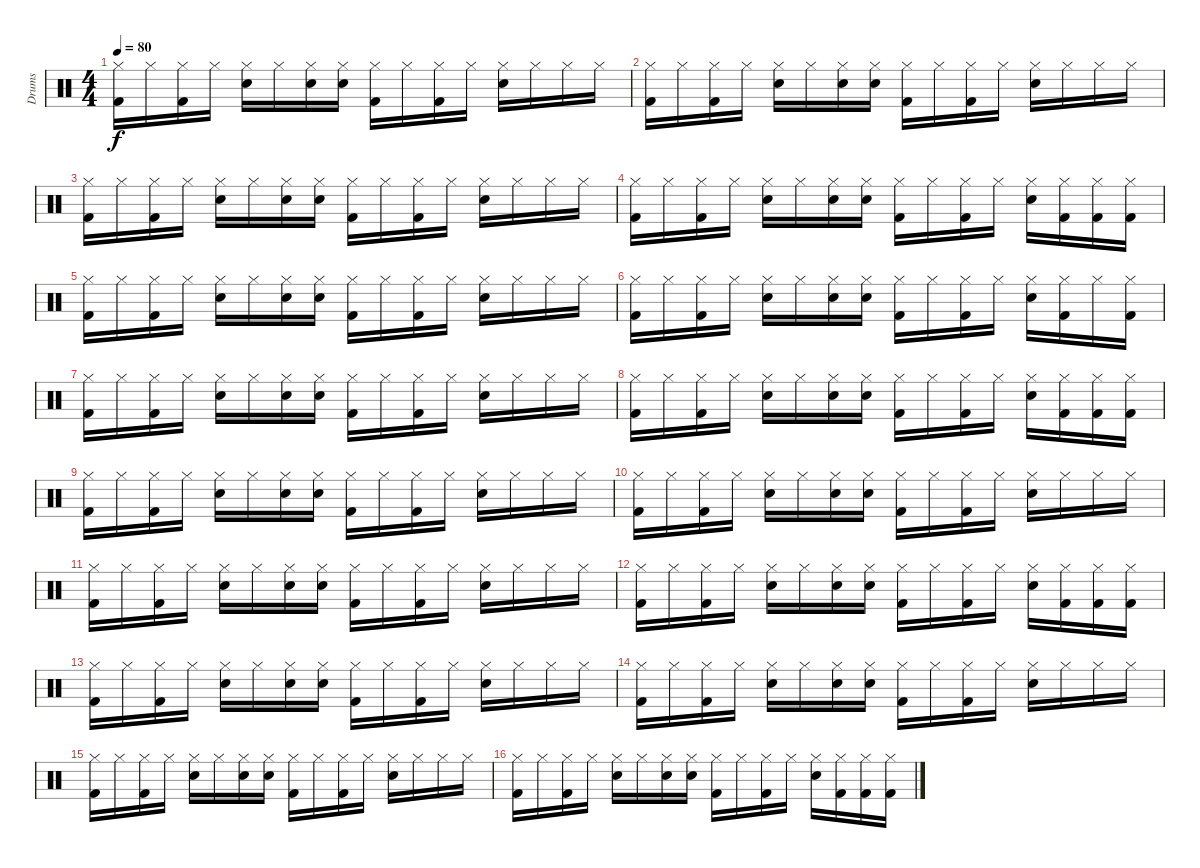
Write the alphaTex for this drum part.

\track ("Drums" "Drums") {instrument percussion}
\staff {score}
\articulation defaults
\ts (4 4)
\tempo 80
\clef neutral
\ks c
("Hi-Hat (closed)" "Kick (hit) 2").16{dy f} "Hi-Hat (closed)".16 ("Hi-Hat (closed)" "Kick (hit) 2").16 "Hi-Hat (closed)".16 ("Hi-Hat (closed)" "Electric Snare (hit)").16 "Hi-Hat (closed)".16 ("Hi-Hat (closed)" "Electric Snare (hit)").16 ("Hi-Hat (closed)" "Electric Snare (hit)").16 ("Hi-Hat (closed)" "Kick (hit) 2").16 "Hi-Hat (closed)".16 ("Hi-Hat (closed)" "Kick (hit) 2").16 "Hi-Hat (closed)".16 ("Hi-Hat (closed)" "Electric Snare (hit)").16 "Hi-Hat (closed)".16 "Hi-Hat (closed)".16 "Hi-Hat (closed)".16 |
("Hi-Hat (closed)" "Kick (hit) 2").16 "Hi-Hat (closed)".16 ("Hi-Hat (closed)" "Kick (hit) 2").16 "Hi-Hat (closed)".16 ("Hi-Hat (closed)" "Electric Snare (hit)").16 "Hi-Hat (closed)".16 ("Hi-Hat (closed)" "Electric Snare (hit)").16 ("Hi-Hat (closed)" "Electric Snare (hit)").16 ("Hi-Hat (closed)" "Kick (hit) 2").16 "Hi-Hat (closed)".16 ("Hi-Hat (closed)" "Kick (hit) 2").16 "Hi-Hat (closed)".16 ("Hi-Hat (closed)" "Electric Snare (hit)").16 "Hi-Hat (closed)".16 "Hi-Hat (closed)".16 "Hi-Hat (closed)".16 |
("Hi-Hat (closed)" "Kick (hit) 2").16 "Hi-Hat (closed)".16 ("Hi-Hat (closed)" "Kick (hit) 2").16 "Hi-Hat (closed)".16 ("Hi-Hat (closed)" "Electric Snare (hit)").16 "Hi-Hat (closed)".16 ("Hi-Hat (closed)" "Electric Snare (hit)").16 ("Hi-Hat (closed)" "Electric Snare (hit)").16 ("Hi-Hat (closed)" "Kick (hit) 2").16 "Hi-Hat (closed)".16 ("Hi-Hat (closed)" "Kick (hit) 2").16 "Hi-Hat (closed)".16 ("Hi-Hat (closed)" "Electric Snare (hit)").16 "Hi-Hat (closed)".16 "Hi-Hat (closed)".16 "Hi-Hat (closed)".16 |
("Hi-Hat (closed)" "Kick (hit) 2").16 "Hi-Hat (closed)".16 ("Hi-Hat (closed)" "Kick (hit) 2").16 "Hi-Hat (closed)".16 ("Hi-Hat (closed)" "Electric Snare (hit)").16 "Hi-Hat (closed)".16 ("Hi-Hat (closed)" "Electric Snare (hit)").16 ("Hi-Hat (closed)" "Electric Snare (hit)").16 ("Hi-Hat (closed)" "Kick (hit) 2").16 "Hi-Hat (closed)".16 ("Hi-Hat (closed)" "Kick (hit) 2").16 "Hi-Hat (closed)".16 ("Hi-Hat (closed)" "Electric Snare (hit)").16 ("Hi-Hat (closed)" "Kick (hit) 2").16 ("Hi-Hat (closed)" "Kick (hit) 2").16 ("Hi-Hat (closed)" "Kick (hit) 2").16 |
("Hi-Hat (closed)" "Kick (hit) 2").16 "Hi-Hat (closed)".16 ("Hi-Hat (closed)" "Kick (hit) 2").16 "Hi-Hat (closed)".16 ("Hi-Hat (closed)" "Electric Snare (hit)").16 "Hi-Hat (closed)".16 ("Hi-Hat (closed)" "Electric Snare (hit)").16 ("Hi-Hat (closed)" "Electric Snare (hit)").16 ("Hi-Hat (closed)" "Kick (hit) 2").16 "Hi-Hat (closed)".16 ("Hi-Hat (closed)" "Kick (hit) 2").16 "Hi-Hat (closed)".16 ("Hi-Hat (closed)" "Electric Snare (hit)").16 "Hi-Hat (closed)".16 "Hi-Hat (closed)".16 "Hi-Hat (closed)".16 |
("Hi-Hat (closed)" "Kick (hit) 2").16 "Hi-Hat (closed)".16 ("Hi-Hat (closed)" "Kick (hit) 2").16 "Hi-Hat (closed)".16 ("Hi-Hat (closed)" "Electric Snare (hit)").16 "Hi-Hat (closed)".16 ("Hi-Hat (closed)" "Electric Snare (hit)").16 ("Hi-Hat (closed)" "Electric Snare (hit)").16 ("Hi-Hat (closed)" "Kick (hit) 2").16 "Hi-Hat (closed)".16 ("Hi-Hat (closed)" "Kick (hit) 2").16 "Hi-Hat (closed)".16 ("Hi-Hat (closed)" "Electric Snare (hit)").16 ("Hi-Hat (closed)" "Kick (hit) 2").16 "Hi-Hat (closed)".16 ("Hi-Hat (closed)" "Kick (hit) 2").16 |
("Hi-Hat (closed)" "Kick (hit) 2").16 "Hi-Hat (closed)".16 ("Hi-Hat (closed)" "Kick (hit) 2").16 "Hi-Hat (closed)".16 ("Hi-Hat (closed)" "Electric Snare (hit)").16 "Hi-Hat (closed)".16 ("Hi-Hat (closed)" "Electric Snare (hit)").16 ("Hi-Hat (closed)" "Electric Snare (hit)").16 ("Hi-Hat (closed)" "Kick (hit) 2").16 "Hi-Hat (closed)".16 ("Hi-Hat (closed)" "Kick (hit) 2").16 "Hi-Hat (closed)".16 ("Hi-Hat (closed)" "Electric Snare (hit)").16 "Hi-Hat (closed)".16 "Hi-Hat (closed)".16 "Hi-Hat (closed)".16 |
("Hi-Hat (closed)" "Kick (hit) 2").16 "Hi-Hat (closed)".16 ("Hi-Hat (closed)" "Kick (hit) 2").16 "Hi-Hat (closed)".16 ("Hi-Hat (closed)" "Electric Snare (hit)").16 "Hi-Hat (closed)".16 ("Hi-Hat (closed)" "Electric Snare (hit)").16 ("Hi-Hat (closed)" "Electric Snare (hit)").16 ("Hi-Hat (closed)" "Kick (hit) 2").16 "Hi-Hat (closed)".16 ("Hi-Hat (closed)" "Kick (hit) 2").16 "Hi-Hat (closed)".16 ("Hi-Hat (closed)" "Electric Snare (hit)").16 ("Hi-Hat (closed)" "Kick (hit) 2").16 ("Hi-Hat (closed)" "Kick (hit) 2").16 ("Hi-Hat (closed)" "Kick (hit) 2").16 |
("Hi-Hat (closed)" "Kick (hit) 2").16 "Hi-Hat (closed)".16 ("Hi-Hat (closed)" "Kick (hit) 2").16 "Hi-Hat (closed)".16 ("Hi-Hat (closed)" "Electric Snare (hit)").16 "Hi-Hat (closed)".16 ("Hi-Hat (closed)" "Electric Snare (hit)").16 ("Hi-Hat (closed)" "Electric Snare (hit)").16 ("Hi-Hat (closed)" "Kick (hit) 2").16 "Hi-Hat (closed)".16 ("Hi-Hat (closed)" "Kick (hit) 2").16 "Hi-Hat (closed)".16 ("Hi-Hat (closed)" "Electric Snare (hit)").16 "Hi-Hat (closed)".16 "Hi-Hat (closed)".16 "Hi-Hat (closed)".16 |
("Hi-Hat (closed)" "Kick (hit) 2").16 "Hi-Hat (closed)".16 ("Hi-Hat (closed)" "Kick (hit) 2").16 "Hi-Hat (closed)".16 ("Hi-Hat (closed)" "Electric Snare (hit)").16 "Hi-Hat (closed)".16 ("Hi-Hat (closed)" "Electric Snare (hit)").16 ("Hi-Hat (closed)" "Electric Snare (hit)").16 ("Hi-Hat (closed)" "Kick (hit) 2").16 "Hi-Hat (closed)".16 ("Hi-Hat (closed)" "Kick (hit) 2").16 "Hi-Hat (closed)".16 ("Hi-Hat (closed)" "Electric Snare (hit)").16 "Hi-Hat (closed)".16 "Hi-Hat (closed)".16 "Hi-Hat (closed)".16 |
("Hi-Hat (closed)" "Kick (hit) 2").16 "Hi-Hat (closed)".16 ("Hi-Hat (closed)" "Kick (hit) 2").16 "Hi-Hat (closed)".16 ("Hi-Hat (closed)" "Electric Snare (hit)").16 "Hi-Hat (closed)".16 ("Hi-Hat (closed)" "Electric Snare (hit)").16 ("Hi-Hat (closed)" "Electric Snare (hit)").16 ("Hi-Hat (closed)" "Kick (hit) 2").16 "Hi-Hat (closed)".16 ("Hi-Hat (closed)" "Kick (hit) 2").16 "Hi-Hat (closed)".16 ("Hi-Hat (closed)" "Electric Snare (hit)").16 "Hi-Hat (closed)".16 "Hi-Hat (closed)".16 "Hi-Hat (closed)".16 |
("Hi-Hat (closed)" "Kick (hit) 2").16 "Hi-Hat (closed)".16 ("Hi-Hat (closed)" "Kick (hit) 2").16 "Hi-Hat (closed)".16 ("Hi-Hat (closed)" "Electric Snare (hit)").16 "Hi-Hat (closed)".16 ("Hi-Hat (closed)" "Electric Snare (hit)").16 ("Hi-Hat (closed)" "Electric Snare (hit)").16 ("Hi-Hat (closed)" "Kick (hit) 2").16 "Hi-Hat (closed)".16 ("Hi-Hat (closed)" "Kick (hit) 2").16 "Hi-Hat (closed)".16 ("Hi-Hat (closed)" "Electric Snare (hit)").16 ("Hi-Hat (closed)" "Kick (hit) 2").16 ("Hi-Hat (closed)" "Kick (hit) 2").16 ("Hi-Hat (closed)" "Kick (hit) 2").16 |
("Hi-Hat (closed)" "Kick (hit) 2").16 "Hi-Hat (closed)".16 ("Hi-Hat (closed)" "Kick (hit) 2").16 "Hi-Hat (closed)".16 ("Hi-Hat (closed)" "Electric Snare (hit)").16 "Hi-Hat (closed)".16 ("Hi-Hat (closed)" "Electric Snare (hit)").16 ("Hi-Hat (closed)" "Electric Snare (hit)").16 ("Hi-Hat (closed)" "Kick (hit) 2").16 "Hi-Hat (closed)".16 ("Hi-Hat (closed)" "Kick (hit) 2").16 "Hi-Hat (closed)".16 ("Hi-Hat (closed)" "Electric Snare (hit)").16 "Hi-Hat (closed)".16 "Hi-Hat (closed)".16 "Hi-Hat (closed)".16 |
("Hi-Hat (closed)" "Kick (hit) 2").16 "Hi-Hat (closed)".16 ("Hi-Hat (closed)" "Kick (hit) 2").16 "Hi-Hat (closed)".16 ("Hi-Hat (closed)" "Electric Snare (hit)").16 "Hi-Hat (closed)".16 ("Hi-Hat (closed)" "Electric Snare (hit)").16 ("Hi-Hat (closed)" "Electric Snare (hit)").16 ("Hi-Hat (closed)" "Kick (hit) 2").16 "Hi-Hat (closed)".16 ("Hi-Hat (closed)" "Kick (hit) 2").16 "Hi-Hat (closed)".16 ("Hi-Hat (closed)" "Electric Snare (hit)").16 "Hi-Hat (closed)".16 "Hi-Hat (closed)".16 "Hi-Hat (closed)".16 |
("Hi-Hat (closed)" "Kick (hit) 2").16 "Hi-Hat (closed)".16 ("Hi-Hat (closed)" "Kick (hit) 2").16 "Hi-Hat (closed)".16 ("Hi-Hat (closed)" "Electric Snare (hit)").16 "Hi-Hat (closed)".16 ("Hi-Hat (closed)" "Electric Snare (hit)").16 ("Hi-Hat (closed)" "Electric Snare (hit)").16 ("Hi-Hat (closed)" "Kick (hit) 2").16 "Hi-Hat (closed)".16 ("Hi-Hat (closed)" "Kick (hit) 2").16 "Hi-Hat (closed)".16 ("Hi-Hat (closed)" "Electric Snare (hit)").16 "Hi-Hat (closed)".16 "Hi-Hat (closed)".16 "Hi-Hat (closed)".16 |
("Hi-Hat (closed)" "Kick (hit) 2").16 "Hi-Hat (closed)".16 ("Hi-Hat (closed)" "Kick (hit) 2").16 "Hi-Hat (closed)".16 ("Hi-Hat (closed)" "Electric Snare (hit)").16 "Hi-Hat (closed)".16 ("Hi-Hat (closed)" "Electric Snare (hit)").16 ("Hi-Hat (closed)" "Electric Snare (hit)").16 ("Hi-Hat (closed)" "Kick (hit) 2").16 "Hi-Hat (closed)".16 ("Hi-Hat (closed)" "Kick (hit) 2").16 "Hi-Hat (closed)".16 ("Hi-Hat (closed)" "Electric Snare (hit)").16 ("Hi-Hat (closed)" "Kick (hit) 2").16 ("Hi-Hat (closed)" "Kick (hit) 2").16 ("Hi-Hat (closed)" "Kick (hit) 2").16
